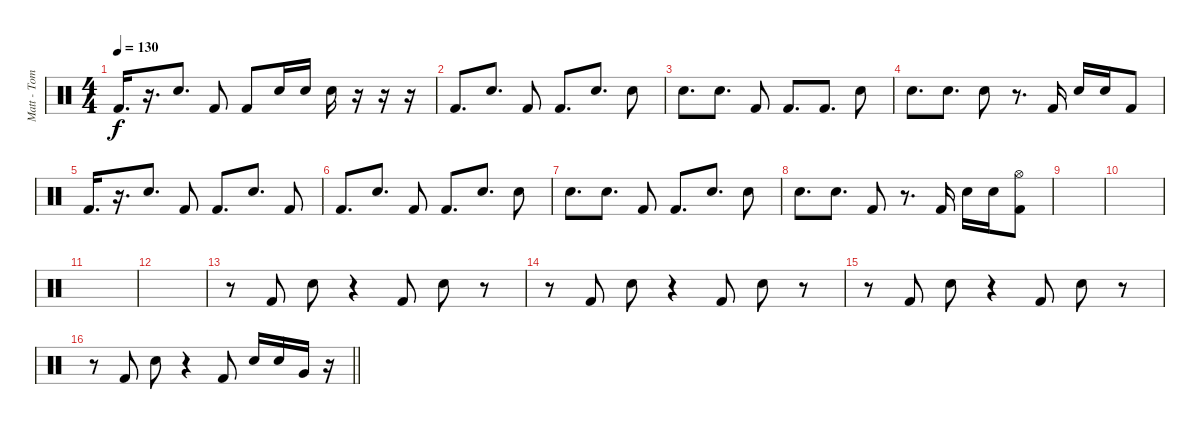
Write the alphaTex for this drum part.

\track ("Matt - Tom" "Matt - Tom") {instrument percussion}
\staff {score}
\articulation defaults
\ts (4 4)
\tempo 130
\clef neutral
\ks c "Kick (hit) 2".16{d dy f}
r.16{d} "Electric Snare (hit)".8{d} "Kick (hit) 2".8 "Kick (hit) 2".8 "Electric Snare (hit)".16 "Electric Snare (hit)".16 "Electric Snare (hit)".16 r.16 r.16 r.16 |
"Kick (hit) 2".8{d} "Electric Snare (hit)".8{d} "Kick (hit) 2".8 "Kick (hit) 2".8{d} "Electric Snare (hit)".8{d} "Electric Snare (hit)".8 |
"Electric Snare (hit)".8{d} "Electric Snare (hit)".8{d} "Kick (hit) 2".8 "Kick (hit) 2".8{d} "Kick (hit) 2".8{d} "Electric Snare (hit)".8 |
"Electric Snare (hit)".8{d} "Electric Snare (hit)".8{d} "Electric Snare (hit)".8 r.8{d} "Kick (hit) 2".16 "Electric Snare (hit)".16 "Electric Snare (hit)".16 "Kick (hit) 2".8 |
"Kick (hit) 2".16{d} r.16{d} "Electric Snare (hit)".8{d} "Kick (hit) 2".8 "Kick (hit) 2".8{d} "Electric Snare (hit)".8{d} "Kick (hit) 2".8 |
"Kick (hit) 2".8{d} "Electric Snare (hit)".8{d} "Kick (hit) 2".8 "Kick (hit) 2".8{d} "Electric Snare (hit)".8{d} "Electric Snare (hit)".8 |
"Electric Snare (hit)".8{d} "Electric Snare (hit)".8{d} "Kick (hit) 2".8 "Kick (hit) 2".8{d} "Electric Snare (hit)".8{d} "Electric Snare (hit)".8 |
"Electric Snare (hit)".8{d} "Electric Snare (hit)".8{d} "Kick (hit) 2".8 r.8{d} "Kick (hit) 2".16 "Electric Snare (hit)".16 "Electric Snare (hit)".16 ("Hi-Hat (open)" "Kick (hit) 2").8 |
|
|
|
|
r.8 "Kick (hit) 2".8 "Electric Snare (hit)".8 r.4 "Kick (hit) 2".8 "Electric Snare (hit)".8 r.8 |
r.8 "Kick (hit) 2".8 "Electric Snare (hit)".8 r.4 "Kick (hit) 2".8 "Electric Snare (hit)".8 r.8 |
r.8 "Kick (hit) 2".8 "Electric Snare (hit)".8 r.4 "Kick (hit) 2".8 "Electric Snare (hit)".8 r.8 |
\barLineRight lightlight
r.8 "Kick (hit) 2".8 "Electric Snare (hit)".8 r.4 "Kick (hit) 2".8 "Electric Snare (hit)".16 "Electric Snare (hit)".16 "Very Low Tom (hit)".16 r.16
